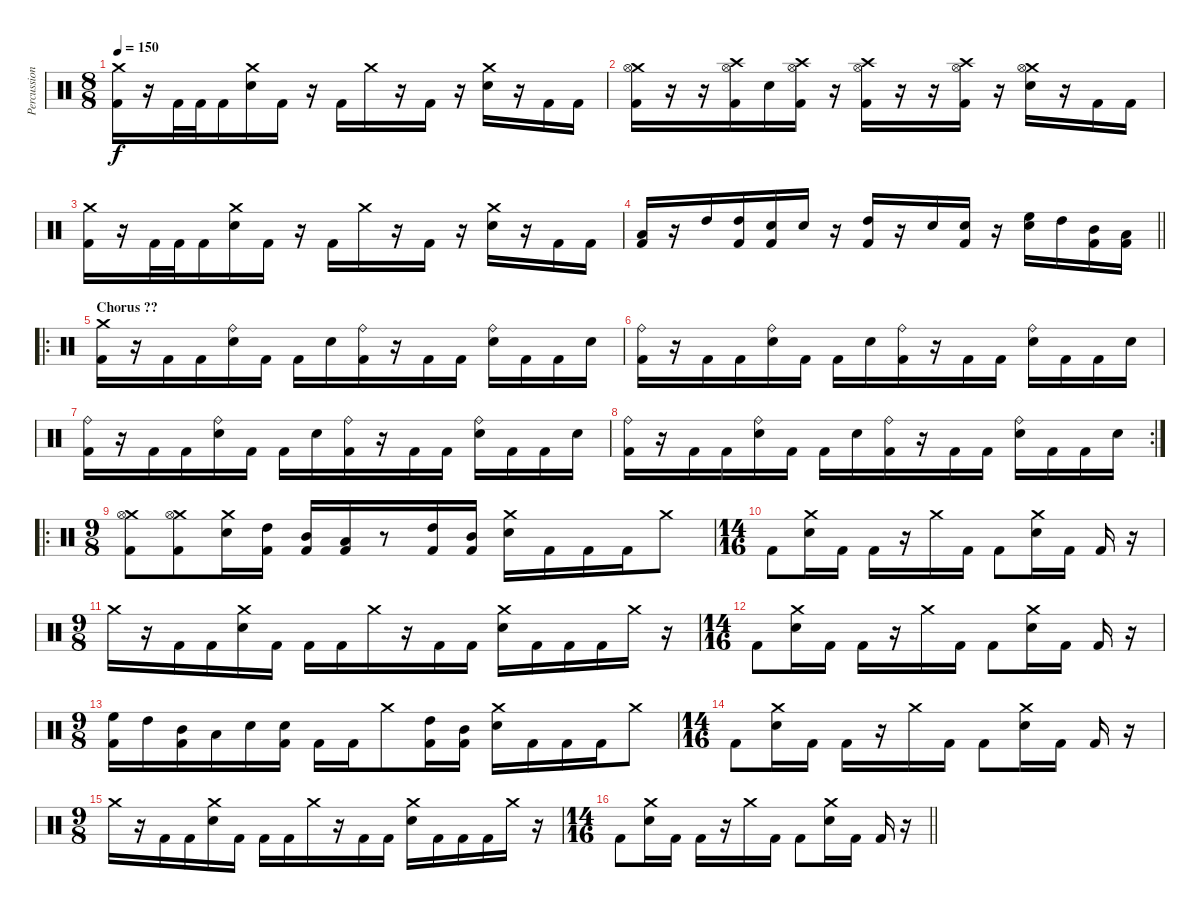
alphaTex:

\track ("Percussions" "Percussion") {instrument percussion}
\staff {score}
\articulation defaults
\ts (8 8)
\tempo 150
\clef neutral
\ks c
("Crash medium (hit)" "Kick (hit) 2").16{dy f} r.16 "Kick (hit) 2".32 "Kick (hit) 2".32 "Kick (hit) 2".16 ("Crash medium (hit)" "Electric Snare (hit)").16 "Kick (hit) 2".16 r.16 "Kick (hit) 2".16 "Crash medium (hit)".16 r.16 "Kick (hit) 2".16 r.16 ("Crash medium (hit)" "Electric Snare (hit)").16 r.16 "Kick (hit) 2".16 "Kick (hit) 2".16 |
("Crash medium (hit)" "Hi-Hat (open)" "Kick (hit) 2").16 r.16 r.16 ("Crash high (hit)" "Hi-Hat (open)" "Kick (hit) 2").16 "Electric Snare (hit)".16 ("Crash high (hit)" "Hi-Hat (open)" "Kick (hit) 2").16 r.16 ("Crash high (hit)" "Hi-Hat (open)" "Kick (hit) 2").16 r.16 r.16 ("Crash high (hit)" "Hi-Hat (open)" "Kick (hit) 2").16 r.16 ("Crash medium (hit)" "Hi-Hat (open)" "Electric Snare (hit)").16 r.16 "Kick (hit) 2".16 "Kick (hit) 2".16 |
("Crash medium (hit)" "Kick (hit) 2").16 r.16 "Kick (hit) 2".32 "Kick (hit) 2".32 "Kick (hit) 2".16 ("Crash medium (hit)" "Electric Snare (hit)").16 "Kick (hit) 2".16 r.16 "Kick (hit) 2".16 "Crash medium (hit)".16 r.16 "Kick (hit) 2".16 r.16 ("Crash medium (hit)" "Electric Snare (hit)").16 r.16 "Kick (hit) 2".16 "Kick (hit) 2".16 |
\barLineRight lightlight
("Low Tom (hit)" "Kick (hit) 2").16 r.16 "High Tom (hit)".16 ("High Tom (hit)" "Kick (hit) 2").16 ("Electric Snare (hit)" "Kick (hit) 2").16 "Electric Snare (hit)".16 r.16 ("High Tom (hit)" "Kick (hit) 2").16 r.16 "Electric Snare (hit)".16 ("Electric Snare (hit)" "Kick (hit) 2").16 r.16 ("High Floor Tom (hit)" "Electric Snare (hit)").16 "High Tom (hit)".16 ("Mid Tom (hit)" "Kick (hit) 2").16 ("Low Tom (hit)" "Kick (hit) 2").16 |
\ro
\section ("" "Chorus ??")
("Crash medium (hit)" "Kick (hit) 2").16 r.16 "Kick (hit) 2".16 "Kick (hit) 2".16 ("Ride (bell)" "Electric Snare (hit)").16 "Kick (hit) 2".16 "Kick (hit) 2".16 "Electric Snare (hit)".16 ("Ride (bell)" "Kick (hit) 2").16 r.16 "Kick (hit) 2".16 "Kick (hit) 2".16 ("Ride (bell)" "Electric Snare (hit)").16 "Kick (hit) 2".16 "Kick (hit) 2".16 "Electric Snare (hit)".16 |
("Ride (bell)" "Kick (hit) 2").16 r.16 "Kick (hit) 2".16 "Kick (hit) 2".16 ("Ride (bell)" "Electric Snare (hit)").16 "Kick (hit) 2".16 "Kick (hit) 2".16 "Electric Snare (hit)".16 ("Ride (bell)" "Kick (hit) 2").16 r.16 "Kick (hit) 2".16 "Kick (hit) 2".16 ("Ride (bell)" "Electric Snare (hit)").16 "Kick (hit) 2".16 "Kick (hit) 2".16 "Electric Snare (hit)".16 |
("Ride (bell)" "Kick (hit) 2").16 r.16 "Kick (hit) 2".16 "Kick (hit) 2".16 ("Ride (bell)" "Electric Snare (hit)").16 "Kick (hit) 2".16 "Kick (hit) 2".16 "Electric Snare (hit)".16 ("Ride (bell)" "Kick (hit) 2").16 r.16 "Kick (hit) 2".16 "Kick (hit) 2".16 ("Ride (bell)" "Electric Snare (hit)").16 "Kick (hit) 2".16 "Kick (hit) 2".16 "Electric Snare (hit)".16 |
\rc 2
("Ride (bell)" "Kick (hit) 2").16 r.16 "Kick (hit) 2".16 "Kick (hit) 2".16 ("Ride (bell)" "Electric Snare (hit)").16 "Kick (hit) 2".16 "Kick (hit) 2".16 "Electric Snare (hit)".16 ("Ride (bell)" "Kick (hit) 2").16 r.16 "Kick (hit) 2".16 "Kick (hit) 2".16 ("Ride (bell)" "Electric Snare (hit)").16 "Kick (hit) 2".16 "Kick (hit) 2".16 "Electric Snare (hit)".16 |
\ro
\ts (9 8)
("Crash medium (hit)" "Hi-Hat (open)" "Kick (hit) 2").8 ("Crash medium (hit)" "Hi-Hat (open)" "Kick (hit) 2").8 ("Crash medium (hit)" "Electric Snare (hit)").16 ("High Tom (hit)" "Kick (hit) 2").16 ("Mid Tom (hit)" "Kick (hit) 2").16 ("Low Tom (hit)" "Kick (hit) 2").16 r.8 ("High Tom (hit)" "Kick (hit) 2").16 ("Mid Tom (hit)" "Kick (hit) 2").16 ("Crash medium (hit)" "Electric Snare (hit)").16 "Kick (hit) 2".16 "Kick (hit) 2".16 "Kick (hit) 2".16 "Crash medium (hit)".8 |
\ts (14 16)
"Kick (hit) 2".8 ("Crash medium (hit)" "Electric Snare (hit)").16 "Kick (hit) 2".16 "Kick (hit) 2".16 r.16 "Crash medium (hit)".16 "Kick (hit) 2".16 "Kick (hit) 2".8 ("Crash medium (hit)" "Electric Snare (hit)").16 "Kick (hit) 2".16 "Kick (hit) 2".16 r.16 |
\ts (9 8)
"Crash medium (hit)".16 r.16 "Kick (hit) 2".16 "Kick (hit) 2".16 ("Crash medium (hit)" "Electric Snare (hit)").16 "Kick (hit) 2".16 "Kick (hit) 2".16 "Kick (hit) 2".16 "Crash medium (hit)".16 r.16 "Kick (hit) 2".16 "Kick (hit) 2".16 ("Crash medium (hit)" "Electric Snare (hit)").16 "Kick (hit) 2".16 "Kick (hit) 2".16 "Kick (hit) 2".16 "Crash medium (hit)".16 r.16 |
\ts (14 16)
"Kick (hit) 2".8 ("Crash medium (hit)" "Electric Snare (hit)").16 "Kick (hit) 2".16 "Kick (hit) 2".16 r.16 "Crash medium (hit)".16 "Kick (hit) 2".16 "Kick (hit) 2".8 ("Crash medium (hit)" "Electric Snare (hit)").16 "Kick (hit) 2".16 "Kick (hit) 2".16 r.16 |
\ts (9 8)
("High Floor Tom (hit)" "Kick (hit) 2").16 "High Tom (hit)".16 ("Mid Tom (hit)" "Kick (hit) 2").16 "Low Tom (hit)".16 "Electric Snare (hit)".16 ("Electric Snare (hit)" "Kick (hit) 2").16 "Kick (hit) 2".16 "Kick (hit) 2".16 "Crash medium (hit)".8 ("High Tom (hit)" "Kick (hit) 2").16 ("Mid Tom (hit)" "Kick (hit) 2").16 ("Crash medium (hit)" "Electric Snare (hit)").16 "Kick (hit) 2".16 "Kick (hit) 2".16 "Kick (hit) 2".16 "Crash medium (hit)".8 |
\ts (14 16)
"Kick (hit) 2".8 ("Crash medium (hit)" "Electric Snare (hit)").16 "Kick (hit) 2".16 "Kick (hit) 2".16 r.16 "Crash medium (hit)".16 "Kick (hit) 2".16 "Kick (hit) 2".8 ("Crash medium (hit)" "Electric Snare (hit)").16 "Kick (hit) 2".16 "Kick (hit) 2".16 r.16 |
\ts (9 8)
"Crash medium (hit)".16 r.16 "Kick (hit) 2".16 "Kick (hit) 2".16 ("Crash medium (hit)" "Electric Snare (hit)").16 "Kick (hit) 2".16 "Kick (hit) 2".16 "Kick (hit) 2".16 "Crash medium (hit)".16 r.16 "Kick (hit) 2".16 "Kick (hit) 2".16 ("Crash medium (hit)" "Electric Snare (hit)").16 "Kick (hit) 2".16 "Kick (hit) 2".16 "Kick (hit) 2".16 "Crash medium (hit)".16 r.16 |
\ts (14 16)
\barLineRight lightlight "Kick (hit) 2".8
("Crash medium (hit)" "Electric Snare (hit)").16 "Kick (hit) 2".16 "Kick (hit) 2".16 r.16 "Crash medium (hit)".16 "Kick (hit) 2".16 "Kick (hit) 2".8 ("Crash medium (hit)" "Electric Snare (hit)").16 "Kick (hit) 2".16 "Kick (hit) 2".16 r.16
